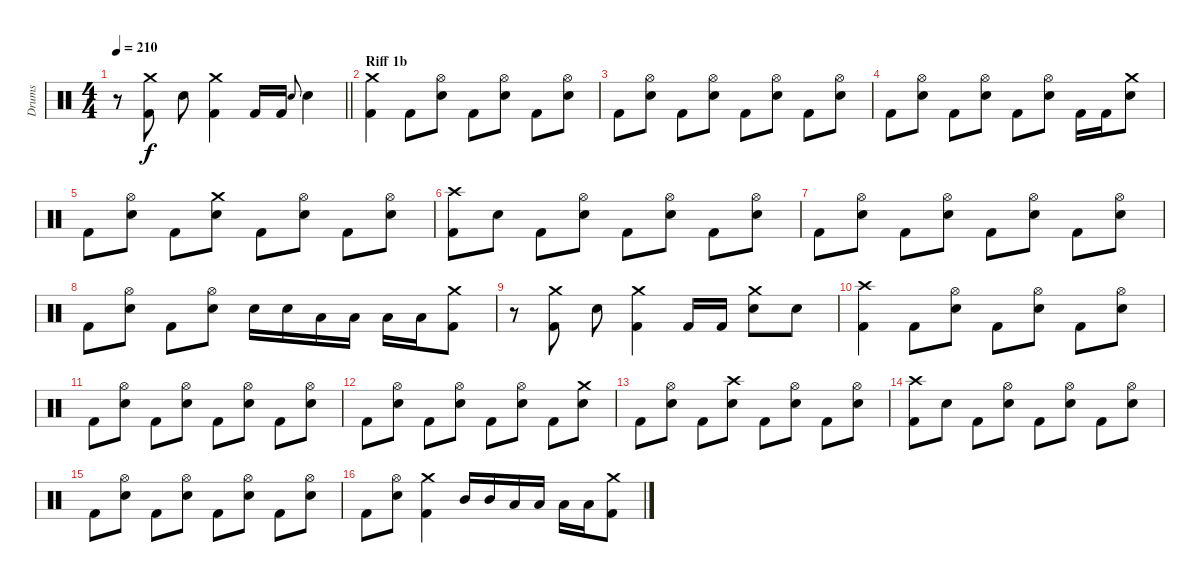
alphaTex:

\track ("Drums" "Drums") {instrument percussion}
\staff {score}
\articulation defaults
\ts (4 4)
\tempo 210
\clef neutral
\barLineRight lightlight
\ks c
r.8{dy f} ("Crash medium (hit)" "Kick (hit) 2").8 "Electric Snare (hit)".8 ("Crash medium (hit)" "Kick (hit) 2").4 "Kick (hit) 2".16 "Kick (hit) 2".16 "Electric Snare (hit)".8{gr onbeat} "Electric Snare (hit)".4 |
\section ("" "Riff 1b")
("Crash medium (hit)" "Kick (hit) 2").4 "Kick (hit) 2".8 ("Electric Snare (hit)" "Hi-Hat (open)").8 "Kick (hit) 2".8 ("Electric Snare (hit)" "Hi-Hat (open)").8 "Kick (hit) 2".8 ("Electric Snare (hit)" "Hi-Hat (open)").8 |
"Kick (hit) 2".8 ("Electric Snare (hit)" "Hi-Hat (open)").8 "Kick (hit) 2".8 ("Electric Snare (hit)" "Hi-Hat (open)").8 "Kick (hit) 2".8 ("Electric Snare (hit)" "Hi-Hat (open)").8 "Kick (hit) 2".8 ("Electric Snare (hit)" "Hi-Hat (open)").8 |
"Kick (hit) 2".8 ("Electric Snare (hit)" "Hi-Hat (open)").8 "Kick (hit) 2".8 ("Electric Snare (hit)" "Hi-Hat (open)").8 "Kick (hit) 2".8 ("Electric Snare (hit)" "Hi-Hat (open)").8 "Kick (hit) 2".16 "Kick (hit) 2".16 ("Electric Snare (hit)" "Crash medium (hit)").8 |
"Kick (hit) 2".8 ("Electric Snare (hit)" "Hi-Hat (open)").8 "Kick (hit) 2".8 ("Electric Snare (hit)" "Crash medium (hit)").8 "Kick (hit) 2".8 ("Electric Snare (hit)" "Hi-Hat (open)").8 "Kick (hit) 2".8 ("Electric Snare (hit)" "Hi-Hat (open)").8 |
("Kick (hit) 2" "Crash high (hit)").8 "Electric Snare (hit)".8 "Kick (hit) 2".8 ("Electric Snare (hit)" "Hi-Hat (open)").8 "Kick (hit) 2".8 ("Electric Snare (hit)" "Hi-Hat (open)").8 "Kick (hit) 2".8 ("Electric Snare (hit)" "Hi-Hat (open)").8 |
"Kick (hit) 2".8 ("Electric Snare (hit)" "Hi-Hat (open)").8 "Kick (hit) 2".8 ("Electric Snare (hit)" "Hi-Hat (open)").8 "Kick (hit) 2".8 ("Electric Snare (hit)" "Hi-Hat (open)").8 "Kick (hit) 2".8 ("Electric Snare (hit)" "Hi-Hat (open)").8 |
"Kick (hit) 2".8 ("Electric Snare (hit)" "Hi-Hat (open)").8 "Kick (hit) 2".8 ("Electric Snare (hit)" "Hi-Hat (open)").8 "Electric Snare (hit)".16 "Electric Snare (hit)".16 "Low Tom (hit)".16 "Low Tom (hit)".16 "Low Floor Tom (hit)".16 "Low Floor Tom (hit)".16 ("Kick (hit) 2" "Crash medium (hit)").8 |
r.8 ("Kick (hit) 2" "Crash medium (hit)").8 "Electric Snare (hit)".8 ("Kick (hit) 2" "Crash medium (hit)").4 "Kick (hit) 2".16 "Kick (hit) 2".16 ("Electric Snare (hit)" "Crash medium (hit)").8 "Electric Snare (hit)".8 |
("Crash high (hit)" "Kick (hit) 2").4 "Kick (hit) 2".8 ("Electric Snare (hit)" "Hi-Hat (open)").8 "Kick (hit) 2".8 ("Electric Snare (hit)" "Hi-Hat (open)").8 "Kick (hit) 2".8 ("Electric Snare (hit)" "Hi-Hat (open)").8 |
"Kick (hit) 2".8 ("Electric Snare (hit)" "Hi-Hat (open)").8 "Kick (hit) 2".8 ("Electric Snare (hit)" "Hi-Hat (open)").8 "Kick (hit) 2".8 ("Electric Snare (hit)" "Hi-Hat (open)").8 "Kick (hit) 2".8 ("Electric Snare (hit)" "Hi-Hat (open)").8 |
"Kick (hit) 2".8 ("Electric Snare (hit)" "Hi-Hat (open)").8 "Kick (hit) 2".8 ("Electric Snare (hit)" "Hi-Hat (open)").8 "Kick (hit) 2".8 ("Electric Snare (hit)" "Hi-Hat (open)").8 "Kick (hit) 2".8 ("Electric Snare (hit)" "Crash medium (hit)").8 |
"Kick (hit) 2".8 ("Electric Snare (hit)" "Hi-Hat (open)").8 "Kick (hit) 2".8 ("Electric Snare (hit)" "Crash high (hit)").8 "Kick (hit) 2".8 ("Electric Snare (hit)" "Hi-Hat (open)").8 "Kick (hit) 2".8 ("Electric Snare (hit)" "Hi-Hat (open)").8 |
("Kick (hit) 2" "Crash high (hit)").8 "Electric Snare (hit)".8 "Kick (hit) 2".8 ("Electric Snare (hit)" "Hi-Hat (open)").8 "Kick (hit) 2".8 ("Electric Snare (hit)" "Hi-Hat (open)").8 "Kick (hit) 2".8 ("Electric Snare (hit)" "Hi-Hat (open)").8 |
"Kick (hit) 2".8 ("Electric Snare (hit)" "Hi-Hat (open)").8 "Kick (hit) 2".8 ("Electric Snare (hit)" "Hi-Hat (open)").8 "Kick (hit) 2".8 ("Electric Snare (hit)" "Hi-Hat (open)").8 "Kick (hit) 2".8 ("Electric Snare (hit)" "Hi-Hat (open)").8 |
"Kick (hit) 2".8 ("Electric Snare (hit)" "Hi-Hat (open)").8 ("Kick (hit) 2" "Crash medium (hit)").4 "Mid Tom (hit)".16 "Mid Tom (hit)".16 "Low Tom (hit)".16 "Low Tom (hit)".16 "Low Floor Tom (hit)".16 "Low Floor Tom (hit)".16 ("Kick (hit) 2" "Crash medium (hit)").8
